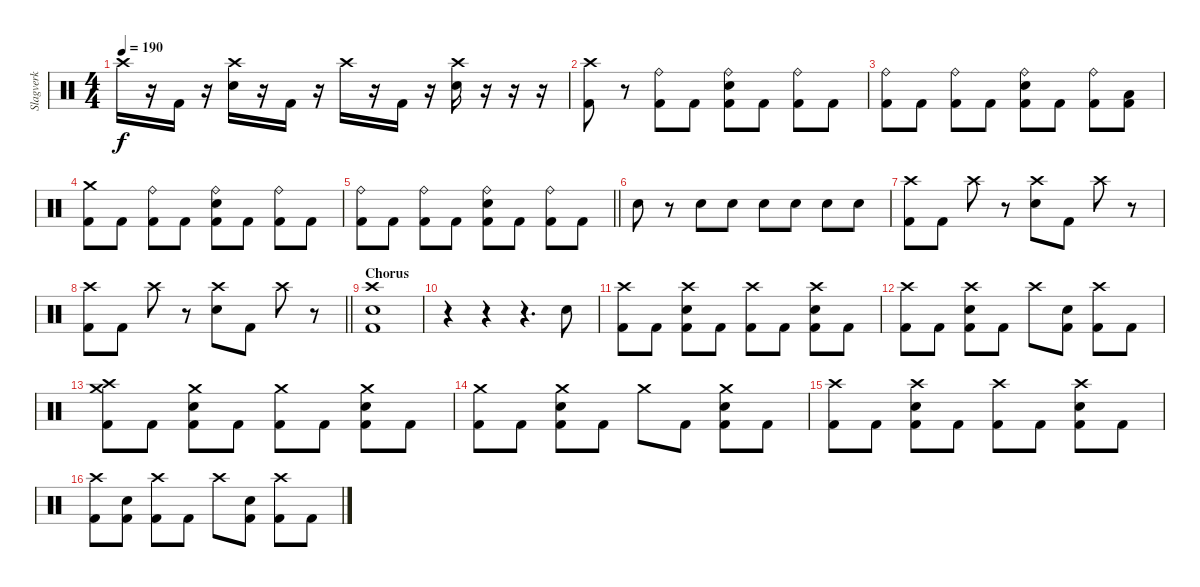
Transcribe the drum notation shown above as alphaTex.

\track ("Slagverk" "Slagverk") {instrument percussion}
\staff {score}
\articulation defaults
\ts (4 4)
\tempo 190
\clef neutral
\ks c "Crash high (hit)".16{dy f}
r.16 "Kick (hit) 2".16 r.16 ("Crash high (hit)" "Electric Snare (hit)").16 r.16 "Kick (hit) 2".16 r.16 "Crash high (hit)".16 r.16 "Kick (hit) 2".16 r.16 ("Crash high (hit)" "Electric Snare (hit)").16 r.16 r.16 r.16 |
("Crash high (hit)" "Kick (hit) 2").8 r.8 ("Ride (bell)" "Kick (hit) 2").8 "Kick (hit) 2".8 ("Ride (bell)" "Electric Snare (hit)" "Kick (hit) 2").8 "Kick (hit) 2".8 ("Ride (bell)" "Kick (hit) 2").8 "Kick (hit) 2".8 |
("Ride (bell)" "Kick (hit) 2").8 "Kick (hit) 2".8 ("Ride (bell)" "Kick (hit) 2").8 "Kick (hit) 2".8 ("Ride (bell)" "Electric Snare (hit)" "Kick (hit) 2").8 "Kick (hit) 2".8 ("Ride (bell)" "Kick (hit) 2").8 ("Low Tom (hit)" "Kick (hit) 2").8 |
("Crash medium (hit)" "Kick (hit) 2").8 "Kick (hit) 2".8 ("Ride (bell)" "Kick (hit) 2").8 "Kick (hit) 2".8 ("Ride (bell)" "Electric Snare (hit)" "Kick (hit) 2").8 "Kick (hit) 2".8 ("Ride (bell)" "Kick (hit) 2").8 "Kick (hit) 2".8 |
\barLineRight lightlight
("Ride (bell)" "Kick (hit) 2").8 "Kick (hit) 2".8 ("Ride (bell)" "Kick (hit) 2").8 "Kick (hit) 2".8 ("Ride (bell)" "Electric Snare (hit)" "Kick (hit) 2").8 "Kick (hit) 2".8 ("Ride (bell)" "Kick (hit) 2").8 "Kick (hit) 2".8 |
"Electric Snare (hit)".8 r.8 "Electric Snare (hit)".8 "Electric Snare (hit)".8 "Electric Snare (hit)".8 "Electric Snare (hit)".8 "Electric Snare (hit)".8 "Electric Snare (hit)".8 |
("Crash high (hit)" "Kick (hit) 2").8 "Kick (hit) 2".8 "Crash high (hit)".8 r.8 ("Crash high (hit)" "Electric Snare (hit)").8 "Kick (hit) 2".8 "Crash high (hit)".8 r.8 |
\barLineRight lightlight
("Crash high (hit)" "Kick (hit) 2").8 "Kick (hit) 2".8 "Crash high (hit)".8 r.8 ("Crash high (hit)" "Electric Snare (hit)").8 "Kick (hit) 2".8 "Crash high (hit)".8 r.8 |
\section ("" "Chorus")
("Crash high (hit)" "Electric Snare (hit)" "Kick (hit) 2").1 |
r.4 r.4 r.4{d} "Electric Snare (hit)".8 |
("Crash high (hit)" "Kick (hit) 2").8 "Kick (hit) 2".8 ("Crash high (hit)" "Electric Snare (hit)" "Kick (hit) 2").8 "Kick (hit) 2".8 ("Crash high (hit)" "Kick (hit) 2").8 "Kick (hit) 2".8 ("Crash high (hit)" "Electric Snare (hit)" "Kick (hit) 2").8 "Kick (hit) 2".8 |
("Crash high (hit)" "Kick (hit) 2").8 "Kick (hit) 2".8 ("Crash high (hit)" "Electric Snare (hit)" "Kick (hit) 2").8 "Kick (hit) 2".8 "Crash high (hit)".8 ("Electric Snare (hit)" "Kick (hit) 2").8 ("Crash high (hit)" "Kick (hit) 2").8 "Kick (hit) 2".8 |
("Crash medium (hit)" "Crash high (hit)" "Kick (hit) 2").8 "Kick (hit) 2".8 ("Crash medium (hit)" "Electric Snare (hit)" "Kick (hit) 2").8 "Kick (hit) 2".8 ("Crash medium (hit)" "Kick (hit) 2").8 "Kick (hit) 2".8 ("Crash medium (hit)" "Electric Snare (hit)" "Kick (hit) 2").8 "Kick (hit) 2".8 |
("Crash medium (hit)" "Kick (hit) 2").8 "Kick (hit) 2".8 ("Crash medium (hit)" "Electric Snare (hit)" "Kick (hit) 2").8 "Kick (hit) 2".8 "Crash medium (hit)".8 "Kick (hit) 2".8 ("Crash medium (hit)" "Electric Snare (hit)" "Kick (hit) 2").8 "Kick (hit) 2".8 |
("Crash high (hit)" "Kick (hit) 2").8 "Kick (hit) 2".8 ("Crash high (hit)" "Electric Snare (hit)" "Kick (hit) 2").8 "Kick (hit) 2".8 ("Crash high (hit)" "Kick (hit) 2").8 "Kick (hit) 2".8 ("Crash high (hit)" "Electric Snare (hit)" "Kick (hit) 2").8 "Kick (hit) 2".8 |
("Crash high (hit)" "Kick (hit) 2").8 ("Electric Snare (hit)" "Kick (hit) 2").8 ("Crash high (hit)" "Kick (hit) 2").8 "Kick (hit) 2".8 "Crash high (hit)".8 ("Electric Snare (hit)" "Kick (hit) 2").8 ("Crash high (hit)" "Kick (hit) 2").8 "Kick (hit) 2".8
